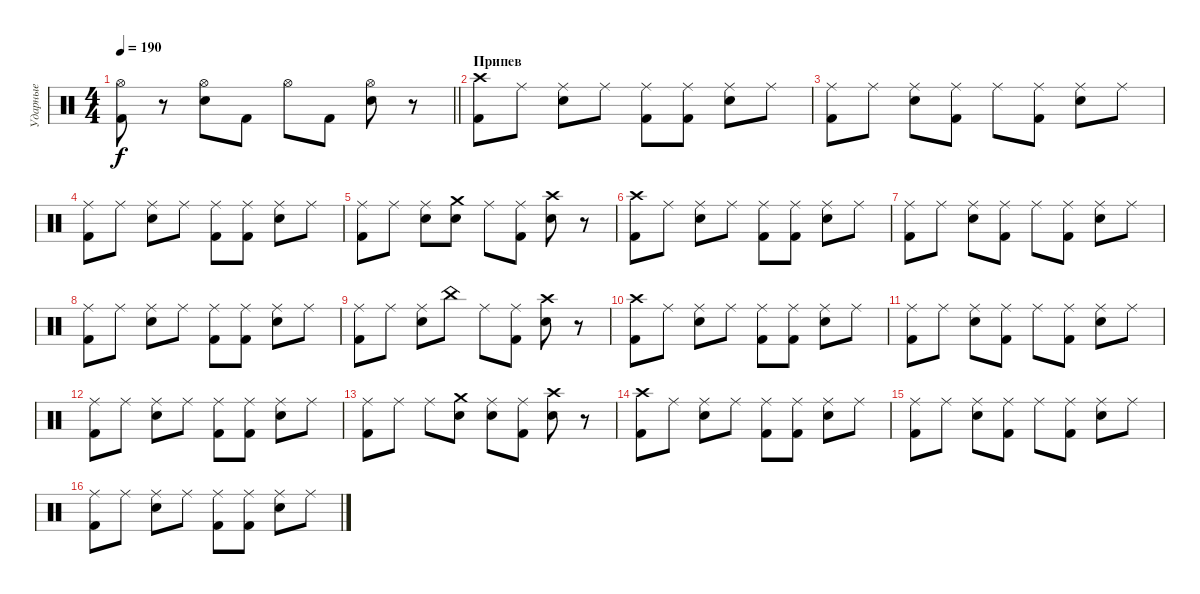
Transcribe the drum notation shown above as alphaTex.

\track ("Ударные" "Ударные") {instrument percussion}
\staff {score}
\articulation defaults
\ts (4 4)
\tempo 190
\clef neutral
\barLineRight lightlight
\ks c
("Hi-Hat (open)" "Kick (hit) 2").8{dy f} r.8 ("Hi-Hat (open)" "Electric Snare (hit)").8 "Kick (hit) 2".8 "Hi-Hat (open)".8 "Kick (hit) 2".8 ("Hi-Hat (open)" "Electric Snare (hit)").8 r.8 |
\section ("" "Припев")
("Crash high (hit)" "Kick (hit) 2").8 "Ride (middle)".8 ("Ride (middle)" "Electric Snare (hit)").8 "Ride (middle)".8 ("Ride (middle)" "Kick (hit) 2").8 ("Ride (middle)" "Kick (hit) 2").8 ("Ride (middle)" "Electric Snare (hit)").8 "Ride (middle)".8 |
("Ride (middle)" "Kick (hit) 2").8 "Ride (middle)".8 ("Ride (middle)" "Electric Snare (hit)").8 ("Ride (middle)" "Kick (hit) 2").8 "Ride (middle)".8 ("Ride (middle)" "Kick (hit) 2").8 ("Ride (middle)" "Electric Snare (hit)").8 "Ride (middle)".8 |
("Ride (middle)" "Kick (hit) 2").8 "Ride (middle)".8 ("Ride (middle)" "Electric Snare (hit)").8 "Ride (middle)".8 ("Ride (middle)" "Kick (hit) 2").8 ("Ride (middle)" "Kick (hit) 2").8 ("Ride (middle)" "Electric Snare (hit)").8 "Ride (middle)".8 |
("Ride (middle)" "Kick (hit) 2").8 "Ride (middle)".8 ("Ride (middle)" "Electric Snare (hit)").8 ("Crash medium (hit)" "Electric Snare (hit)").8 "Ride (middle)".8 ("Ride (middle)" "Kick (hit) 2").8 ("Crash high (hit)" "Electric Snare (hit)").8 r.8 |
("Crash high (hit)" "Kick (hit) 2").8 "Ride (middle)".8 ("Ride (middle)" "Electric Snare (hit)").8 "Ride (middle)".8 ("Ride (middle)" "Kick (hit) 2").8 ("Ride (middle)" "Kick (hit) 2").8 ("Ride (middle)" "Electric Snare (hit)").8 "Ride (middle)".8 |
("Ride (middle)" "Kick (hit) 2").8 "Ride (middle)".8 ("Ride (middle)" "Electric Snare (hit)").8 ("Ride (middle)" "Kick (hit) 2").8 "Ride (middle)".8 ("Ride (middle)" "Kick (hit) 2").8 ("Ride (middle)" "Electric Snare (hit)").8 "Ride (middle)".8 |
("Ride (middle)" "Kick (hit) 2").8 "Ride (middle)".8 ("Ride (middle)" "Electric Snare (hit)").8 "Ride (middle)".8 ("Ride (middle)" "Kick (hit) 2").8 ("Ride (middle)" "Kick (hit) 2").8 ("Ride (middle)" "Electric Snare (hit)").8 "Ride (middle)".8 |
("Ride (middle)" "Kick (hit) 2").8 "Ride (middle)".8 ("Ride (middle)" "Electric Snare (hit)").8 "China (hit)".8 "Ride (middle)".8 ("Ride (middle)" "Kick (hit) 2").8 ("Crash high (hit)" "Electric Snare (hit)").8 r.8 |
("Crash high (hit)" "Kick (hit) 2").8 "Ride (middle)".8 ("Ride (middle)" "Electric Snare (hit)").8 "Ride (middle)".8 ("Ride (middle)" "Kick (hit) 2").8 ("Ride (middle)" "Kick (hit) 2").8 ("Ride (middle)" "Electric Snare (hit)").8 "Ride (middle)".8 |
("Ride (middle)" "Kick (hit) 2").8 "Ride (middle)".8 ("Ride (middle)" "Electric Snare (hit)").8 ("Ride (middle)" "Kick (hit) 2").8 "Ride (middle)".8 ("Ride (middle)" "Kick (hit) 2").8 ("Ride (middle)" "Electric Snare (hit)").8 "Ride (middle)".8 |
("Ride (middle)" "Kick (hit) 2").8 "Ride (middle)".8 ("Ride (middle)" "Electric Snare (hit)").8 "Ride (middle)".8 ("Ride (middle)" "Kick (hit) 2").8 ("Ride (middle)" "Kick (hit) 2").8 ("Ride (middle)" "Electric Snare (hit)").8 "Ride (middle)".8 |
("Ride (middle)" "Kick (hit) 2").8 "Ride (middle)".8 "Ride (middle)".8 ("Crash medium (hit)" "Electric Snare (hit)").8 ("Ride (middle)" "Electric Snare (hit)").8 ("Ride (middle)" "Kick (hit) 2").8 ("Crash high (hit)" "Electric Snare (hit)").8 r.8 |
("Crash high (hit)" "Kick (hit) 2").8 "Ride (middle)".8 ("Ride (middle)" "Electric Snare (hit)").8 "Ride (middle)".8 ("Ride (middle)" "Kick (hit) 2").8 ("Ride (middle)" "Kick (hit) 2").8 ("Ride (middle)" "Electric Snare (hit)").8 "Ride (middle)".8 |
("Ride (middle)" "Kick (hit) 2").8 "Ride (middle)".8 ("Ride (middle)" "Electric Snare (hit)").8 ("Ride (middle)" "Kick (hit) 2").8 "Ride (middle)".8 ("Ride (middle)" "Kick (hit) 2").8 ("Ride (middle)" "Electric Snare (hit)").8 "Ride (middle)".8 |
("Ride (middle)" "Kick (hit) 2").8 "Ride (middle)".8 ("Ride (middle)" "Electric Snare (hit)").8 "Ride (middle)".8 ("Ride (middle)" "Kick (hit) 2").8 ("Ride (middle)" "Kick (hit) 2").8 ("Ride (middle)" "Electric Snare (hit)").8 "Ride (middle)".8
